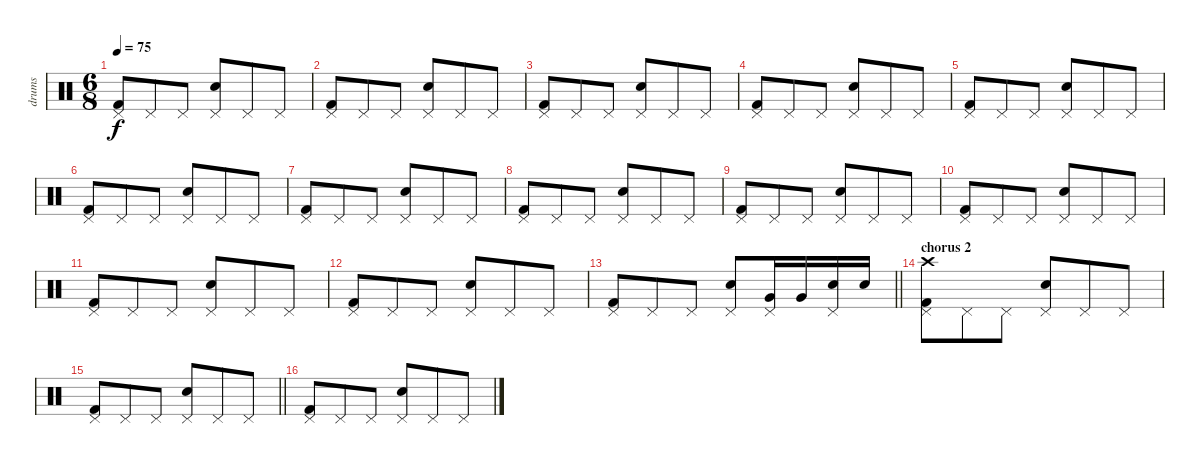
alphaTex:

\track ("drums" "drums") {instrument percussion}
\staff {score}
\articulation defaults
\ts (6 8)
\tempo 75
\clef neutral
\ks c
("Kick (hit) 2" "Pedal Hi-Hat (hit)").8{dy f} "Pedal Hi-Hat (hit)".8 "Pedal Hi-Hat (hit)".8 ("Electric Snare (hit)" "Pedal Hi-Hat (hit)").8 "Pedal Hi-Hat (hit)".8 "Pedal Hi-Hat (hit)".8 |
("Kick (hit) 2" "Pedal Hi-Hat (hit)").8 "Pedal Hi-Hat (hit)".8 "Pedal Hi-Hat (hit)".8 ("Electric Snare (hit)" "Pedal Hi-Hat (hit)").8 "Pedal Hi-Hat (hit)".8 "Pedal Hi-Hat (hit)".8 |
("Kick (hit) 2" "Pedal Hi-Hat (hit)").8 "Pedal Hi-Hat (hit)".8 "Pedal Hi-Hat (hit)".8 ("Electric Snare (hit)" "Pedal Hi-Hat (hit)").8 "Pedal Hi-Hat (hit)".8 "Pedal Hi-Hat (hit)".8 |
("Kick (hit) 2" "Pedal Hi-Hat (hit)").8 "Pedal Hi-Hat (hit)".8 "Pedal Hi-Hat (hit)".8 ("Electric Snare (hit)" "Pedal Hi-Hat (hit)").8 "Pedal Hi-Hat (hit)".8 "Pedal Hi-Hat (hit)".8 |
("Kick (hit) 2" "Pedal Hi-Hat (hit)").8 "Pedal Hi-Hat (hit)".8 "Pedal Hi-Hat (hit)".8 ("Electric Snare (hit)" "Pedal Hi-Hat (hit)").8 "Pedal Hi-Hat (hit)".8 "Pedal Hi-Hat (hit)".8 |
("Kick (hit) 2" "Pedal Hi-Hat (hit)").8 "Pedal Hi-Hat (hit)".8 "Pedal Hi-Hat (hit)".8 ("Electric Snare (hit)" "Pedal Hi-Hat (hit)").8 "Pedal Hi-Hat (hit)".8 "Pedal Hi-Hat (hit)".8 |
("Kick (hit) 2" "Pedal Hi-Hat (hit)").8 "Pedal Hi-Hat (hit)".8 "Pedal Hi-Hat (hit)".8 ("Electric Snare (hit)" "Pedal Hi-Hat (hit)").8 "Pedal Hi-Hat (hit)".8 "Pedal Hi-Hat (hit)".8 |
("Kick (hit) 2" "Pedal Hi-Hat (hit)").8 "Pedal Hi-Hat (hit)".8 "Pedal Hi-Hat (hit)".8 ("Electric Snare (hit)" "Pedal Hi-Hat (hit)").8 "Pedal Hi-Hat (hit)".8 "Pedal Hi-Hat (hit)".8 |
("Kick (hit) 2" "Pedal Hi-Hat (hit)").8 "Pedal Hi-Hat (hit)".8 "Pedal Hi-Hat (hit)".8 ("Electric Snare (hit)" "Pedal Hi-Hat (hit)").8 "Pedal Hi-Hat (hit)".8 "Pedal Hi-Hat (hit)".8 |
("Kick (hit) 2" "Pedal Hi-Hat (hit)").8 "Pedal Hi-Hat (hit)".8 "Pedal Hi-Hat (hit)".8 ("Electric Snare (hit)" "Pedal Hi-Hat (hit)").8 "Pedal Hi-Hat (hit)".8 "Pedal Hi-Hat (hit)".8 |
("Kick (hit) 2" "Pedal Hi-Hat (hit)").8 "Pedal Hi-Hat (hit)".8 "Pedal Hi-Hat (hit)".8 ("Electric Snare (hit)" "Pedal Hi-Hat (hit)").8 "Pedal Hi-Hat (hit)".8 "Pedal Hi-Hat (hit)".8 |
("Kick (hit) 2" "Pedal Hi-Hat (hit)").8 "Pedal Hi-Hat (hit)".8 "Pedal Hi-Hat (hit)".8 ("Electric Snare (hit)" "Pedal Hi-Hat (hit)").8 "Pedal Hi-Hat (hit)".8 "Pedal Hi-Hat (hit)".8 |
\barLineRight lightlight
("Kick (hit) 2" "Pedal Hi-Hat (hit)").8 "Pedal Hi-Hat (hit)".8 "Pedal Hi-Hat (hit)".8 ("Electric Snare (hit)" "Pedal Hi-Hat (hit)").8 ("Very Low Tom (hit)" "Pedal Hi-Hat (hit)").16 "Very Low Tom (hit)".16 ("Electric Snare (hit)" "Pedal Hi-Hat (hit)").16 "Electric Snare (hit)".16 |
\section ("" "chorus 2")
("Kick (hit) 2" "Pedal Hi-Hat (hit)" "Crash high (hit)").8 "Pedal Hi-Hat (hit)".8 "Pedal Hi-Hat (hit)".8 ("Electric Snare (hit)" "Pedal Hi-Hat (hit)").8 "Pedal Hi-Hat (hit)".8 "Pedal Hi-Hat (hit)".8 |
\barLineRight lightlight
("Kick (hit) 2" "Pedal Hi-Hat (hit)").8 "Pedal Hi-Hat (hit)".8 "Pedal Hi-Hat (hit)".8 ("Electric Snare (hit)" "Pedal Hi-Hat (hit)").8 "Pedal Hi-Hat (hit)".8 "Pedal Hi-Hat (hit)".8 |
("Kick (hit) 2" "Pedal Hi-Hat (hit)").8 "Pedal Hi-Hat (hit)".8 "Pedal Hi-Hat (hit)".8 ("Electric Snare (hit)" "Pedal Hi-Hat (hit)").8 "Pedal Hi-Hat (hit)".8 "Pedal Hi-Hat (hit)".8
